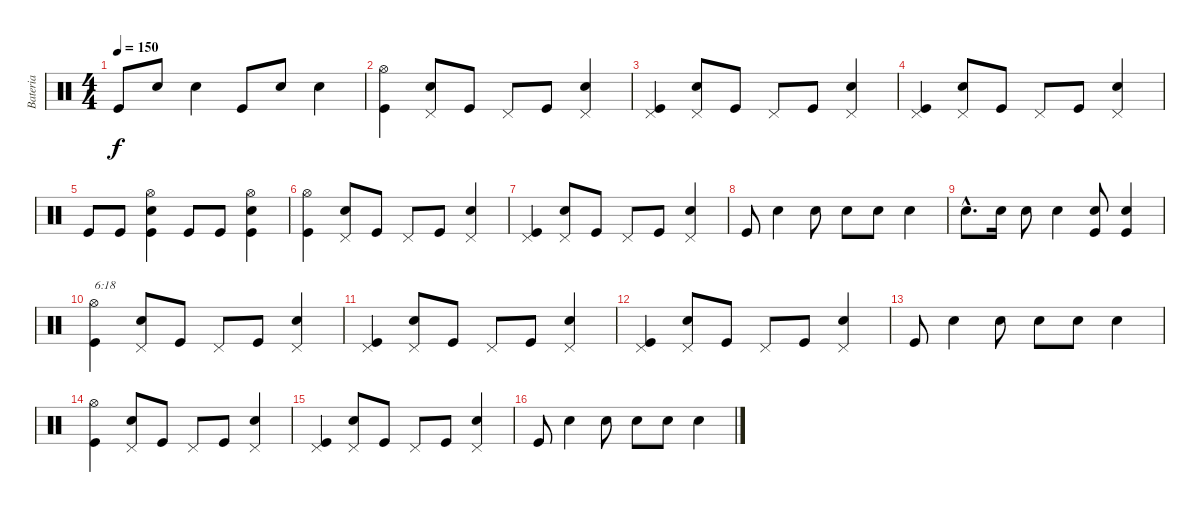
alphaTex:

\track ("Bateria" "Bateria") {instrument percussion}
\staff {score}
\articulation defaults
\ts (4 4)
\tempo 150
\clef neutral
\ks c "Kick (hit)".8{dy f} "Snare (hit) 2".8 "Snare (hit) 2".4 "Kick (hit)".8 "Snare (hit) 2".8 "Snare (hit) 2".4
|
("Kick (hit)" "Hi-Hat (open)").4 ("Snare (hit) 2" "Pedal Hi-Hat (hit)").8 "Kick (hit)".8 "Pedal Hi-Hat (hit)".8 "Kick (hit)".8 ("Snare (hit) 2" "Pedal Hi-Hat (hit)").4 |
("Kick (hit)" "Pedal Hi-Hat (hit)").4 ("Snare (hit) 2" "Pedal Hi-Hat (hit)").8 "Kick (hit)".8 "Pedal Hi-Hat (hit)".8 "Kick (hit)".8 ("Snare (hit) 2" "Pedal Hi-Hat (hit)").4 |
("Kick (hit)" "Pedal Hi-Hat (hit)").4 ("Snare (hit) 2" "Pedal Hi-Hat (hit)").8 "Kick (hit)".8 "Pedal Hi-Hat (hit)".8 "Kick (hit)".8 ("Snare (hit) 2" "Pedal Hi-Hat (hit)").4 |
"Kick (hit)".8 "Kick (hit)".8 ("Kick (hit)" "Snare (hit) 2" "Hi-Hat (open)").4 "Kick (hit)".8 "Kick (hit)".8 ("Kick (hit)" "Snare (hit) 2" "Hi-Hat (open)").4 |
("Kick (hit)" "Hi-Hat (open)").4 ("Snare (hit) 2" "Pedal Hi-Hat (hit)").8 "Kick (hit)".8 "Pedal Hi-Hat (hit)".8 "Kick (hit)".8 ("Snare (hit) 2" "Pedal Hi-Hat (hit)").4 |
("Kick (hit)" "Pedal Hi-Hat (hit)").4 ("Snare (hit) 2" "Pedal Hi-Hat (hit)").8 "Kick (hit)".8 "Pedal Hi-Hat (hit)".8 "Kick (hit)".8 ("Snare (hit) 2" "Pedal Hi-Hat (hit)").4 |
"Kick (hit)".8 "Snare (hit) 2".4 "Snare (hit) 2".8 "Snare (hit) 2".8 "Snare (hit) 2".8 "Snare (hit) 2".4 |
"Snare (hit) 2"{hac}.8{d} "Snare (hit) 2".16 "Snare (hit) 2".8 "Snare (hit) 2".4 ("Kick (hit)" "Snare (hit) 2").8 ("Kick (hit)" "Snare (hit) 2").4 |
("Kick (hit)" "Hi-Hat (open)").4{txt "6:18"} ("Snare (hit) 2" "Pedal Hi-Hat (hit)").8 "Kick (hit)".8 "Pedal Hi-Hat (hit)".8 "Kick (hit)".8 ("Snare (hit) 2" "Pedal Hi-Hat (hit)").4 |
("Kick (hit)" "Pedal Hi-Hat (hit)").4 ("Snare (hit) 2" "Pedal Hi-Hat (hit)").8 "Kick (hit)".8 "Pedal Hi-Hat (hit)".8 "Kick (hit)".8 ("Snare (hit) 2" "Pedal Hi-Hat (hit)").4 |
("Kick (hit)" "Pedal Hi-Hat (hit)").4 ("Snare (hit) 2" "Pedal Hi-Hat (hit)").8 "Kick (hit)".8 "Pedal Hi-Hat (hit)".8 "Kick (hit)".8 ("Snare (hit) 2" "Pedal Hi-Hat (hit)").4 |
"Kick (hit)".8 "Snare (hit) 2".4 "Snare (hit) 2".8 "Snare (hit) 2".8 "Snare (hit) 2".8 "Snare (hit) 2".4 |
("Kick (hit)" "Hi-Hat (open)").4 ("Snare (hit) 2" "Pedal Hi-Hat (hit)").8 "Kick (hit)".8 "Pedal Hi-Hat (hit)".8 "Kick (hit)".8 ("Snare (hit) 2" "Pedal Hi-Hat (hit)").4 |
("Kick (hit)" "Pedal Hi-Hat (hit)").4 ("Snare (hit) 2" "Pedal Hi-Hat (hit)").8 "Kick (hit)".8 "Pedal Hi-Hat (hit)".8 "Kick (hit)".8 ("Snare (hit) 2" "Pedal Hi-Hat (hit)").4 |
"Kick (hit)".8 "Snare (hit) 2".4 "Snare (hit) 2".8 "Snare (hit) 2".8 "Snare (hit) 2".8 "Snare (hit) 2".4
